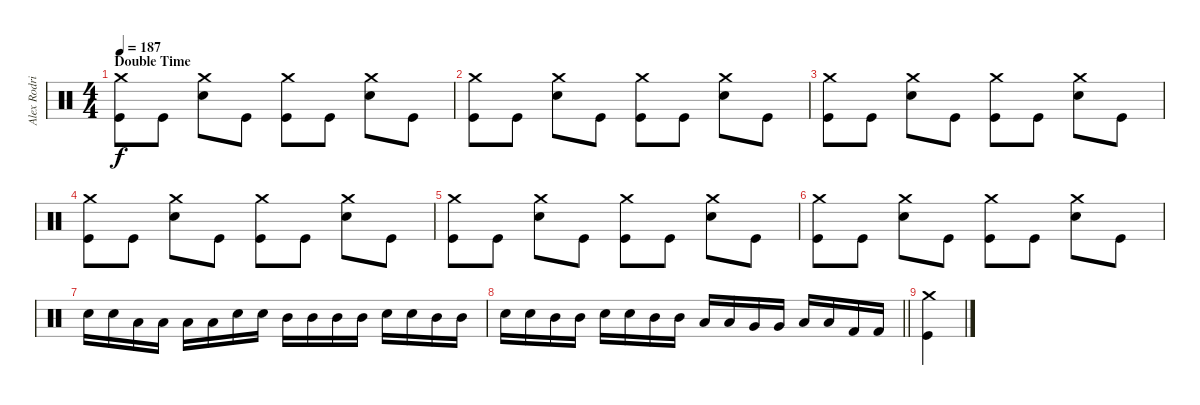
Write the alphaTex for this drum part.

\track ("Alex Rodriguez" "Alex Rodri") {instrument percussion}
\staff {score}
\articulation defaults
\ts (4 4)
\section ("" "Double Time")
\tempo 187
\clef neutral
\ks c
("Crash medium (hit)" "Kick (hit)").8{dy f} "Kick (hit)".8 ("Crash medium (hit)" "Electric Snare (hit)").8 "Kick (hit)".8 ("Crash medium (hit)" "Kick (hit)").8 "Kick (hit)".8 ("Crash medium (hit)" "Electric Snare (hit)").8 "Kick (hit)".8 |
("Crash medium (hit)" "Kick (hit)").8 "Kick (hit)".8 ("Crash medium (hit)" "Electric Snare (hit)").8 "Kick (hit)".8 ("Crash medium (hit)" "Kick (hit)").8 "Kick (hit)".8 ("Crash medium (hit)" "Electric Snare (hit)").8 "Kick (hit)".8 |
("Crash medium (hit)" "Kick (hit)").8 "Kick (hit)".8 ("Crash medium (hit)" "Electric Snare (hit)").8 "Kick (hit)".8 ("Crash medium (hit)" "Kick (hit)").8 "Kick (hit)".8 ("Crash medium (hit)" "Electric Snare (hit)").8 "Kick (hit)".8 |
("Crash medium (hit)" "Kick (hit)").8 "Kick (hit)".8 ("Crash medium (hit)" "Electric Snare (hit)").8 "Kick (hit)".8 ("Crash medium (hit)" "Kick (hit)").8 "Kick (hit)".8 ("Crash medium (hit)" "Electric Snare (hit)").8 "Kick (hit)".8 |
("Crash medium (hit)" "Kick (hit)").8 "Kick (hit)".8 ("Crash medium (hit)" "Electric Snare (hit)").8 "Kick (hit)".8 ("Crash medium (hit)" "Kick (hit)").8 "Kick (hit)".8 ("Crash medium (hit)" "Electric Snare (hit)").8 "Kick (hit)".8 |
("Crash medium (hit)" "Kick (hit)").8 "Kick (hit)".8 ("Crash medium (hit)" "Electric Snare (hit)").8 "Kick (hit)".8 ("Crash medium (hit)" "Kick (hit)").8 "Kick (hit)".8 ("Crash medium (hit)" "Electric Snare (hit)").8 "Kick (hit)".8 |
"Snare (hit) 2".16 "Snare (hit) 2".16 "Low Tom (hit)".16 "Low Tom (hit)".16 "Low Tom (hit)".16 "Low Tom (hit)".16 "Electric Snare (hit)".16 "Electric Snare (hit)".16 "Mid Tom (hit)".16 "Mid Tom (hit)".16 "Mid Tom (hit)".16 "Mid Tom (hit)".16 "Electric Snare (hit)".16 "Electric Snare (hit)".16 "Mid Tom (hit)".16 "Mid Tom (hit)".16 |
\barLineRight lightlight "Electric Snare (hit)".16 "Electric Snare (hit)".16 "Mid Tom (hit)".16 "Mid Tom (hit)".16 "Electric Snare (hit)".16 "Electric Snare (hit)".16 "Mid Tom (hit)".16 "Mid Tom (hit)".16 "Low Tom (hit)".16 "Low Tom (hit)".16 "Very Low Tom (hit)".16 "Very Low Tom (hit)".16 "Low Floor Tom (hit)".16 "Low Floor Tom (hit)".16 "Kick (hit) 2".16 "Kick (hit) 2".16
|
("Crash medium (hit)" "Kick (hit)").4
